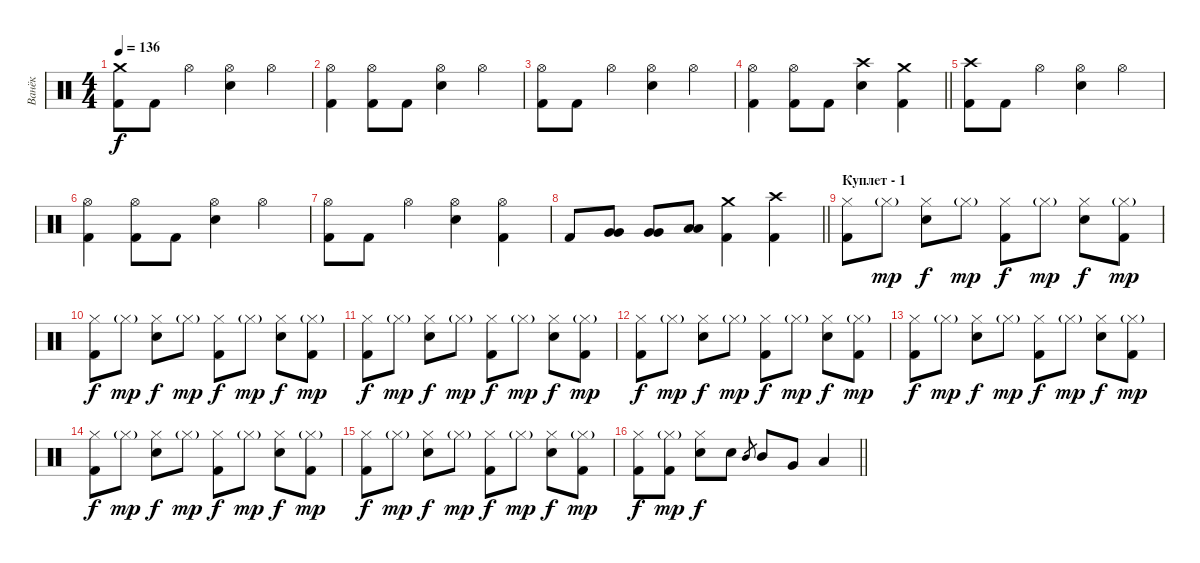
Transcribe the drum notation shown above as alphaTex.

\track ("Ванёк" "Ванёк") {instrument percussion}
\staff {score}
\articulation defaults
\ts (4 4)
\tempo 136
\clef neutral
\ks c
("Crash medium (hit)" "Kick (hit) 2").8{dy f} "Kick (hit) 2".8 "Hi-Hat (open)".4 ("Hi-Hat (open)" "Snare (hit) 2").4 "Hi-Hat (open)".4 |
("Hi-Hat (open)" "Kick (hit) 2").4 ("Hi-Hat (open)" "Kick (hit) 2").8 "Kick (hit) 2".8 ("Hi-Hat (open)" "Snare (hit) 2").4 "Hi-Hat (open)".4 |
("Hi-Hat (open)" "Kick (hit) 2").8 "Kick (hit) 2".8 "Hi-Hat (open)".4 ("Hi-Hat (open)" "Snare (hit) 2").4 "Hi-Hat (open)".4 |
\barLineRight lightlight
("Hi-Hat (open)" "Kick (hit) 2").4 ("Hi-Hat (open)" "Kick (hit) 2").8 "Kick (hit) 2".8 ("Crash high (hit)" "Snare (hit) 2").4 ("Crash medium (hit)" "Kick (hit) 2").4 |
("Crash high (hit)" "Kick (hit) 2").8 "Kick (hit) 2".8 "Hi-Hat (open)".4 ("Hi-Hat (open)" "Snare (hit) 2").4 "Hi-Hat (open)".4 |
("Hi-Hat (open)" "Kick (hit) 2").4 ("Hi-Hat (open)" "Kick (hit) 2").8 "Kick (hit) 2".8 ("Hi-Hat (open)" "Snare (hit) 2").4 "Hi-Hat (open)".4 |
("Hi-Hat (open)" "Kick (hit) 2").8 "Kick (hit) 2".8 "Hi-Hat (open)".4 ("Hi-Hat (open)" "Snare (hit) 2").4 ("Hi-Hat (open)" "Kick (hit) 2").4 |
\barLineRight lightlight "Kick (hit) 2".8
("Very Low Tom (hit)" "Very Low Tom (hit)").8 ("Very Low Tom (hit)" "Very Low Tom (hit)").8 ("Low Tom (hit)" "Low Tom (hit)").8 ("Crash medium (hit)" "Kick (hit) 2").4 ("Crash high (hit)" "Kick (hit) 2").4 |
\section ("" "Куплет - 1")
("Hi-Hat (closed)" "Kick (hit) 2").8 "Hi-Hat (closed)"{g}.8{dy mp} ("Hi-Hat (closed)" "Snare (hit) 2").8{dy f} "Hi-Hat (closed)"{g}.8{dy mp} ("Hi-Hat (closed)" "Kick (hit) 2").8{dy f} "Hi-Hat (closed)"{g}.8{dy mp} ("Hi-Hat (closed)" "Snare (hit) 2").8{dy f} ("Hi-Hat (closed)"{g} "Kick (hit) 2").8{dy mp} |
("Hi-Hat (closed)" "Kick (hit) 2").8{dy f} "Hi-Hat (closed)"{g}.8{dy mp} ("Hi-Hat (closed)" "Snare (hit) 2").8{dy f} "Hi-Hat (closed)"{g}.8{dy mp} ("Hi-Hat (closed)" "Kick (hit) 2").8{dy f} "Hi-Hat (closed)"{g}.8{dy mp} ("Hi-Hat (closed)" "Snare (hit) 2").8{dy f} ("Hi-Hat (closed)"{g} "Kick (hit) 2").8{dy mp} |
("Hi-Hat (closed)" "Kick (hit) 2").8{dy f} "Hi-Hat (closed)"{g}.8{dy mp} ("Hi-Hat (closed)" "Snare (hit) 2").8{dy f} "Hi-Hat (closed)"{g}.8{dy mp} ("Hi-Hat (closed)" "Kick (hit) 2").8{dy f} "Hi-Hat (closed)"{g}.8{dy mp} ("Hi-Hat (closed)" "Snare (hit) 2").8{dy f} ("Hi-Hat (closed)"{g} "Kick (hit) 2").8{dy mp} |
("Hi-Hat (closed)" "Kick (hit) 2").8{dy f} "Hi-Hat (closed)"{g}.8{dy mp} ("Hi-Hat (closed)" "Snare (hit) 2").8{dy f} "Hi-Hat (closed)"{g}.8{dy mp} ("Hi-Hat (closed)" "Kick (hit) 2").8{dy f} "Hi-Hat (closed)"{g}.8{dy mp} ("Hi-Hat (closed)" "Snare (hit) 2").8{dy f} ("Hi-Hat (closed)"{g} "Kick (hit) 2").8{dy mp} |
("Hi-Hat (closed)" "Kick (hit) 2").8{dy f} "Hi-Hat (closed)"{g}.8{dy mp} ("Hi-Hat (closed)" "Snare (hit) 2").8{dy f} "Hi-Hat (closed)"{g}.8{dy mp} ("Hi-Hat (closed)" "Kick (hit) 2").8{dy f} "Hi-Hat (closed)"{g}.8{dy mp} ("Hi-Hat (closed)" "Snare (hit) 2").8{dy f} ("Hi-Hat (closed)"{g} "Kick (hit) 2").8{dy mp} |
("Hi-Hat (closed)" "Kick (hit) 2").8{dy f} "Hi-Hat (closed)"{g}.8{dy mp} ("Hi-Hat (closed)" "Snare (hit) 2").8{dy f} "Hi-Hat (closed)"{g}.8{dy mp} ("Hi-Hat (closed)" "Kick (hit) 2").8{dy f} "Hi-Hat (closed)"{g}.8{dy mp} ("Hi-Hat (closed)" "Snare (hit) 2").8{dy f} ("Hi-Hat (closed)"{g} "Kick (hit) 2").8{dy mp} |
("Hi-Hat (closed)" "Kick (hit) 2").8{dy f} "Hi-Hat (closed)"{g}.8{dy mp} ("Hi-Hat (closed)" "Snare (hit) 2").8{dy f} "Hi-Hat (closed)"{g}.8{dy mp} ("Hi-Hat (closed)" "Kick (hit) 2").8{dy f} "Hi-Hat (closed)"{g}.8{dy mp} ("Hi-Hat (closed)" "Snare (hit) 2").8{dy f} ("Hi-Hat (closed)"{g} "Kick (hit) 2").8{dy mp} |
\barLineRight lightlight
("Hi-Hat (closed)" "Kick (hit) 2").8{dy f} ("Hi-Hat (closed)"{g} "Kick (hit) 2").8{dy mp} ("Hi-Hat (closed)" "Snare (hit) 2").8{dy f} "Snare (hit) 2".8 "Mid Tom (hit)".8{gr} "Mid Tom (hit)".8 "Very Low Tom (hit)".8 "Low Tom (hit)".4
